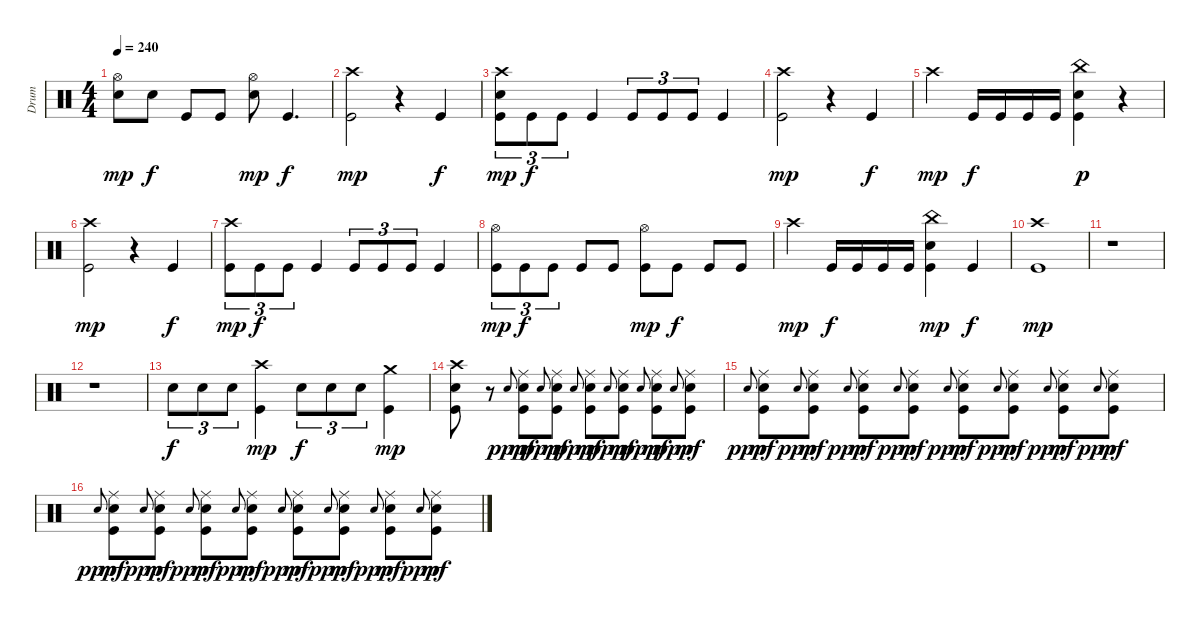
\track ("Drum" "Drum") {instrument percussion}
\staff {score}
\articulation defaults
\ts (4 4)
\tempo 240
\clef neutral
\ks c
("Hi-Hat (open)" "Electric Snare (hit)").8{dy mp} "Electric Snare (hit)".8{dy f} "Kick (hit)".8 "Kick (hit)".8 ("Hi-Hat (open)" "Electric Snare (hit)").8{dy mp} "Kick (hit)".4{d dy f} |
("Crash high (hit)" "Kick (hit)").2{dy mp} r.4 "Kick (hit)".4{dy f} |
("Crash high (hit)" "Electric Snare (hit)" "Kick (hit)").8{tu (3 2) dy mp} "Kick (hit)".8{tu (3 2) dy f} "Kick (hit)".8{tu (3 2)} "Kick (hit)".4 "Kick (hit)".8{tu (3 2)} "Kick (hit)".8{tu (3 2)} "Kick (hit)".8{tu (3 2)} "Kick (hit)".4 |
("Crash high (hit)" "Kick (hit)").2{dy mp} r.4 "Kick (hit)".4{dy f} |
"Crash high (hit)".4{dy mp} "Kick (hit)".16{dy f} "Kick (hit)".16 "Kick (hit)".16 "Kick (hit)".16 ("China (hit)" "Electric Snare (hit)" "Kick (hit)").4{dy p} r.4 |
("Crash high (hit)" "Kick (hit)").2{dy mp} r.4 "Kick (hit)".4{dy f} |
("Crash high (hit)" "Kick (hit)").8{tu (3 2) dy mp} "Kick (hit)".8{tu (3 2) dy f} "Kick (hit)".8{tu (3 2)} "Kick (hit)".4 "Kick (hit)".8{tu (3 2)} "Kick (hit)".8{tu (3 2)} "Kick (hit)".8{tu (3 2)} "Kick (hit)".4 |
("Hi-Hat (open)" "Kick (hit)").8{tu (3 2) dy mp} "Kick (hit)".8{tu (3 2) dy f} "Kick (hit)".8{tu (3 2)} "Kick (hit)".8 "Kick (hit)".8 ("Hi-Hat (open)" "Kick (hit)").8{dy mp} "Kick (hit)".8{dy f} "Kick (hit)".8 "Kick (hit)".8 |
"Crash high (hit)".4{dy mp} "Kick (hit)".16{dy f} "Kick (hit)".16 "Kick (hit)".16 "Kick (hit)".16 ("China (hit)" "Electric Snare (hit)" "Kick (hit)").4{dy mp} "Kick (hit)".4{dy f} |
("Crash high (hit)" "Kick (hit)").1{dy mp} |
r.1 |
r.1 |
"Electric Snare (hit)".8{tu (3 2) dy f} "Electric Snare (hit)".8{tu (3 2)} "Electric Snare (hit)".8{tu (3 2)} ("Crash high (hit)" "Kick (hit)").4{dy mp} "Electric Snare (hit)".8{tu (3 2) dy f} "Electric Snare (hit)".8{tu (3 2)} "Electric Snare (hit)".8{tu (3 2)} ("Crash medium (hit)" "Kick (hit)").4{dy mp} |
("Crash high (hit)" "Electric Snare (hit)" "Kick (hit)").8 r.8 "Electric Snare (hit)".8{gr onbeat dy ppp} ("Ride (middle)" "Electric Snare (hit)" "Kick (hit)").8{dy mf} "Electric Snare (hit)".8{gr onbeat dy ppp} ("Ride (middle)" "Electric Snare (hit)" "Kick (hit)").8{dy mf} "Electric Snare (hit)".8{gr onbeat dy ppp} ("Ride (middle)" "Electric Snare (hit)" "Kick (hit)").8{dy mf} "Electric Snare (hit)".8{gr onbeat dy ppp} ("Ride (middle)" "Electric Snare (hit)" "Kick (hit)").8{dy mf} "Electric Snare (hit)".8{gr onbeat dy ppp} ("Ride (middle)" "Electric Snare (hit)" "Kick (hit)").8{dy mf} "Electric Snare (hit)".8{gr onbeat dy ppp} ("Ride (middle)" "Electric Snare (hit)" "Kick (hit)").8{dy mf} |
"Electric Snare (hit)".8{gr onbeat dy ppp} ("Ride (middle)" "Electric Snare (hit)" "Kick (hit)").8{dy mf} "Electric Snare (hit)".8{gr onbeat dy ppp} ("Ride (middle)" "Electric Snare (hit)" "Kick (hit)").8{dy mf} "Electric Snare (hit)".8{gr onbeat dy ppp} ("Ride (middle)" "Electric Snare (hit)" "Kick (hit)").8{dy mf} "Electric Snare (hit)".8{gr onbeat dy ppp} ("Ride (middle)" "Electric Snare (hit)" "Kick (hit)").8{dy mf} "Electric Snare (hit)".8{gr onbeat dy ppp} ("Ride (middle)" "Electric Snare (hit)" "Kick (hit)").8{dy mf} "Electric Snare (hit)".8{gr onbeat dy ppp} ("Ride (middle)" "Electric Snare (hit)" "Kick (hit)").8{dy mf} "Electric Snare (hit)".8{gr onbeat dy ppp} ("Ride (middle)" "Electric Snare (hit)" "Kick (hit)").8{dy mf} "Electric Snare (hit)".8{gr onbeat dy ppp} ("Ride (middle)" "Electric Snare (hit)" "Kick (hit)").8{dy mf} |
"Electric Snare (hit)".8{gr onbeat dy ppp} ("Ride (middle)" "Electric Snare (hit)" "Kick (hit)").8{dy mf} "Electric Snare (hit)".8{gr onbeat dy ppp} ("Ride (middle)" "Electric Snare (hit)" "Kick (hit)").8{dy mf} "Electric Snare (hit)".8{gr onbeat dy ppp} ("Ride (middle)" "Electric Snare (hit)" "Kick (hit)").8{dy mf} "Electric Snare (hit)".8{gr onbeat dy ppp} ("Ride (middle)" "Electric Snare (hit)" "Kick (hit)").8{dy mf} "Electric Snare (hit)".8{gr onbeat dy ppp} ("Ride (middle)" "Electric Snare (hit)" "Kick (hit)").8{dy mf} "Electric Snare (hit)".8{gr onbeat dy ppp} ("Ride (middle)" "Electric Snare (hit)" "Kick (hit)").8{dy mf} "Electric Snare (hit)".8{gr onbeat dy ppp} ("Ride (middle)" "Electric Snare (hit)" "Kick (hit)").8{dy mf} "Electric Snare (hit)".8{gr onbeat dy ppp} ("Ride (middle)" "Electric Snare (hit)" "Kick (hit)").8{dy mf}
